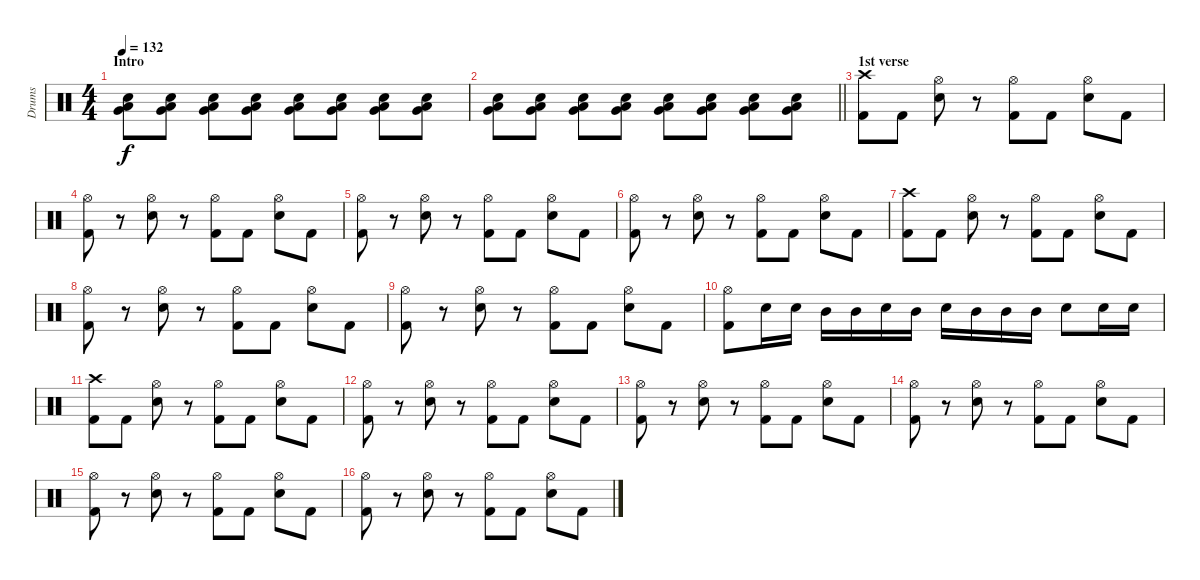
\track ("Drums" "Drums") {instrument percussion}
\staff {score}
\articulation defaults
\ts (4 4)
\section ("" "Intro")
\tempo 132
\clef neutral
\ks c
("Snare (hit) 2" "Very Low Tom (hit)" "Low Tom (hit)").8{dy f} ("Snare (hit) 2" "Very Low Tom (hit)" "Low Tom (hit)").8 ("Snare (hit) 2" "Very Low Tom (hit)" "Low Tom (hit)").8 ("Snare (hit) 2" "Very Low Tom (hit)" "Low Tom (hit)").8 ("Snare (hit) 2" "Very Low Tom (hit)" "Low Tom (hit)").8 ("Snare (hit) 2" "Very Low Tom (hit)" "Low Tom (hit)").8 ("Snare (hit) 2" "Very Low Tom (hit)" "Low Tom (hit)").8 ("Snare (hit) 2" "Very Low Tom (hit)" "Low Tom (hit)").8 |
\barLineRight lightlight
("Snare (hit) 2" "Very Low Tom (hit)" "Low Tom (hit)").8 ("Snare (hit) 2" "Very Low Tom (hit)" "Low Tom (hit)").8 ("Snare (hit) 2" "Very Low Tom (hit)" "Low Tom (hit)").8 ("Snare (hit) 2" "Very Low Tom (hit)" "Low Tom (hit)").8 ("Snare (hit) 2" "Very Low Tom (hit)" "Low Tom (hit)").8 ("Snare (hit) 2" "Very Low Tom (hit)" "Low Tom (hit)").8 ("Snare (hit) 2" "Very Low Tom (hit)" "Low Tom (hit)").8 ("Snare (hit) 2" "Very Low Tom (hit)" "Low Tom (hit)").8 |
\section ("" "1st verse")
("Crash high (hit)" "Kick (hit) 2").8 "Kick (hit) 2".8 ("Hi-Hat (open)" "Electric Snare (hit)").8 r.8 ("Hi-Hat (open)" "Kick (hit) 2").8 "Kick (hit) 2".8 ("Hi-Hat (open)" "Electric Snare (hit)").8 "Kick (hit) 2".8 |
("Hi-Hat (open)" "Kick (hit) 2").8 r.8 ("Hi-Hat (open)" "Electric Snare (hit)").8 r.8 ("Hi-Hat (open)" "Kick (hit) 2").8 "Kick (hit) 2".8 ("Hi-Hat (open)" "Electric Snare (hit)").8 "Kick (hit) 2".8 |
("Hi-Hat (open)" "Kick (hit) 2").8 r.8 ("Hi-Hat (open)" "Electric Snare (hit)").8 r.8 ("Hi-Hat (open)" "Kick (hit) 2").8 "Kick (hit) 2".8 ("Hi-Hat (open)" "Electric Snare (hit)").8 "Kick (hit) 2".8 |
("Hi-Hat (open)" "Kick (hit) 2").8 r.8 ("Hi-Hat (open)" "Electric Snare (hit)").8 r.8 ("Hi-Hat (open)" "Kick (hit) 2").8 "Kick (hit) 2".8 ("Hi-Hat (open)" "Electric Snare (hit)").8 "Kick (hit) 2".8 |
("Crash high (hit)" "Kick (hit) 2").8 "Kick (hit) 2".8 ("Hi-Hat (open)" "Electric Snare (hit)").8 r.8 ("Hi-Hat (open)" "Kick (hit) 2").8 "Kick (hit) 2".8 ("Hi-Hat (open)" "Electric Snare (hit)").8 "Kick (hit) 2".8 |
("Hi-Hat (open)" "Kick (hit) 2").8 r.8 ("Hi-Hat (open)" "Electric Snare (hit)").8 r.8 ("Hi-Hat (open)" "Kick (hit) 2").8 "Kick (hit) 2".8 ("Hi-Hat (open)" "Electric Snare (hit)").8 "Kick (hit) 2".8 |
("Hi-Hat (open)" "Kick (hit) 2").8 r.8 ("Hi-Hat (open)" "Electric Snare (hit)").8 r.8 ("Hi-Hat (open)" "Kick (hit) 2").8 "Kick (hit) 2".8 ("Hi-Hat (open)" "Electric Snare (hit)").8 "Kick (hit) 2".8 |
("Hi-Hat (open)" "Kick (hit) 2").8 "Electric Snare (hit)".16 "Electric Snare (hit)".16 "Mid Tom (hit)".16 "Mid Tom (hit)".16 "Electric Snare (hit)".16 "Mid Tom (hit)".16 "Electric Snare (hit)".16 "Mid Tom (hit)".16 "Mid Tom (hit)".16 "Mid Tom (hit)".16 "Electric Snare (hit)".8 "Electric Snare (hit)".16 "Electric Snare (hit)".16 |
("Crash high (hit)" "Kick (hit) 2").8 "Kick (hit) 2".8 ("Hi-Hat (open)" "Electric Snare (hit)").8 r.8 ("Hi-Hat (open)" "Kick (hit) 2").8 "Kick (hit) 2".8 ("Hi-Hat (open)" "Electric Snare (hit)").8 "Kick (hit) 2".8 |
("Hi-Hat (open)" "Kick (hit) 2").8 r.8 ("Hi-Hat (open)" "Electric Snare (hit)").8 r.8 ("Hi-Hat (open)" "Kick (hit) 2").8 "Kick (hit) 2".8 ("Hi-Hat (open)" "Electric Snare (hit)").8 "Kick (hit) 2".8 |
("Hi-Hat (open)" "Kick (hit) 2").8 r.8 ("Hi-Hat (open)" "Electric Snare (hit)").8 r.8 ("Hi-Hat (open)" "Kick (hit) 2").8 "Kick (hit) 2".8 ("Hi-Hat (open)" "Electric Snare (hit)").8 "Kick (hit) 2".8 |
("Hi-Hat (open)" "Kick (hit) 2").8 r.8 ("Hi-Hat (open)" "Electric Snare (hit)").8 r.8 ("Hi-Hat (open)" "Kick (hit) 2").8 "Kick (hit) 2".8 ("Hi-Hat (open)" "Electric Snare (hit)").8 "Kick (hit) 2".8 |
("Hi-Hat (open)" "Kick (hit) 2").8 r.8 ("Hi-Hat (open)" "Electric Snare (hit)").8 r.8 ("Hi-Hat (open)" "Kick (hit) 2").8 "Kick (hit) 2".8 ("Hi-Hat (open)" "Electric Snare (hit)").8 "Kick (hit) 2".8 |
("Hi-Hat (open)" "Kick (hit) 2").8 r.8 ("Hi-Hat (open)" "Electric Snare (hit)").8 r.8 ("Hi-Hat (open)" "Kick (hit) 2").8 "Kick (hit) 2".8 ("Hi-Hat (open)" "Electric Snare (hit)").8 "Kick (hit) 2".8
